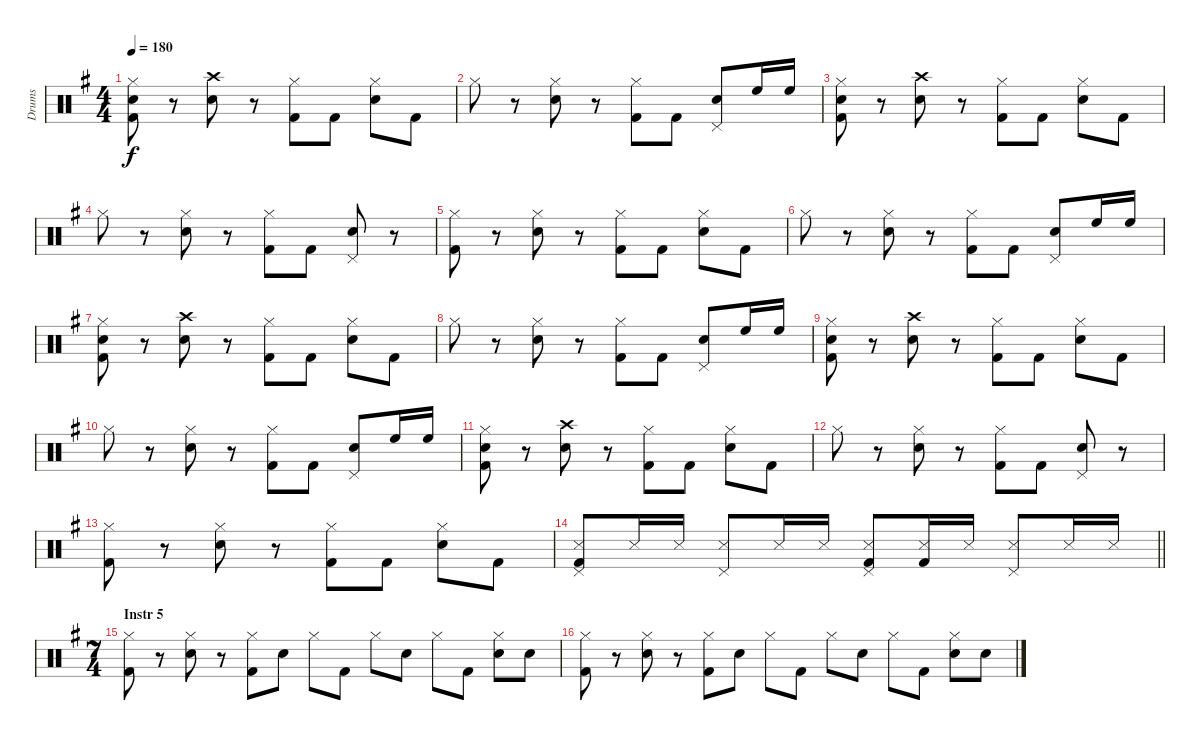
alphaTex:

\track ("Drums" "Drums") {instrument percussion bank 255}
\staff {score}
\articulation defaults
\ts (4 4)
\tempo 180
\clef neutral
\ks g
("Hi-Hat (closed)" "Snare (hit) 2" "Kick (hit) 2").8{dy f} r.8 ("Crash high (hit)" "Snare (hit) 2").8 r.8 ("Hi-Hat (closed)" "Kick (hit) 2").8 "Kick (hit) 2".8 ("Hi-Hat (closed)" "Snare (hit) 2").8 "Kick (hit) 2".8 |
"Hi-Hat (closed)".8 r.8 ("Hi-Hat (closed)" "Snare (hit) 2").8 r.8 ("Hi-Hat (closed)" "Kick (hit) 2").8 "Kick (hit) 2".8 ("Pedal Hi-Hat (hit)" "Snare (hit) 2").8 "High Floor Tom (hit)".16 "High Floor Tom (hit)".16 |
("Hi-Hat (closed)" "Snare (hit) 2" "Kick (hit) 2").8 r.8 ("Crash high (hit)" "Snare (hit) 2").8 r.8 ("Hi-Hat (closed)" "Kick (hit) 2").8 "Kick (hit) 2".8 ("Hi-Hat (closed)" "Snare (hit) 2").8 "Kick (hit) 2".8 |
"Hi-Hat (closed)".8 r.8 ("Hi-Hat (closed)" "Snare (hit) 2").8 r.8 ("Hi-Hat (closed)" "Kick (hit) 2").8 "Kick (hit) 2".8 ("Pedal Hi-Hat (hit)" "Snare (hit) 2").8 r.8 |
("Hi-Hat (closed)" "Kick (hit) 2").8 r.8 ("Hi-Hat (closed)" "Snare (hit) 2").8 r.8 ("Hi-Hat (closed)" "Kick (hit) 2").8 "Kick (hit) 2".8 ("Hi-Hat (closed)" "Snare (hit) 2").8 "Kick (hit) 2".8 |
"Hi-Hat (closed)".8 r.8 ("Hi-Hat (closed)" "Snare (hit) 2").8 r.8 ("Hi-Hat (closed)" "Kick (hit) 2").8 "Kick (hit) 2".8 ("Pedal Hi-Hat (hit)" "Snare (hit) 2").8 "High Floor Tom (hit)".16 "High Floor Tom (hit)".16 |
("Hi-Hat (closed)" "Snare (hit) 2" "Kick (hit) 2").8 r.8 ("Crash high (hit)" "Snare (hit) 2").8 r.8 ("Hi-Hat (closed)" "Kick (hit) 2").8 "Kick (hit) 2".8 ("Hi-Hat (closed)" "Snare (hit) 2").8 "Kick (hit) 2".8 |
"Hi-Hat (closed)".8 r.8 ("Hi-Hat (closed)" "Snare (hit) 2").8 r.8 ("Hi-Hat (closed)" "Kick (hit) 2").8 "Kick (hit) 2".8 ("Pedal Hi-Hat (hit)" "Snare (hit) 2").8 "High Floor Tom (hit)".16 "High Floor Tom (hit)".16 |
("Hi-Hat (closed)" "Snare (hit) 2" "Kick (hit) 2").8 r.8 ("Crash high (hit)" "Snare (hit) 2").8 r.8 ("Hi-Hat (closed)" "Kick (hit) 2").8 "Kick (hit) 2".8 ("Hi-Hat (closed)" "Snare (hit) 2").8 "Kick (hit) 2".8 |
"Hi-Hat (closed)".8 r.8 ("Hi-Hat (closed)" "Snare (hit) 2").8 r.8 ("Hi-Hat (closed)" "Kick (hit) 2").8 "Kick (hit) 2".8 ("Pedal Hi-Hat (hit)" "Snare (hit) 2").8 "High Floor Tom (hit)".16 "High Floor Tom (hit)".16 |
("Hi-Hat (closed)" "Snare (hit) 2" "Kick (hit) 2").8 r.8 ("Crash high (hit)" "Snare (hit) 2").8 r.8 ("Hi-Hat (closed)" "Kick (hit) 2").8 "Kick (hit) 2".8 ("Hi-Hat (closed)" "Snare (hit) 2").8 "Kick (hit) 2".8 |
"Hi-Hat (closed)".8 r.8 ("Hi-Hat (closed)" "Snare (hit) 2").8 r.8 ("Hi-Hat (closed)" "Kick (hit) 2").8 "Kick (hit) 2".8 ("Pedal Hi-Hat (hit)" "Snare (hit) 2").8 r.8 |
("Hi-Hat (closed)" "Kick (hit) 2").8 r.8 ("Hi-Hat (closed)" "Snare (hit) 2").8 r.8 ("Hi-Hat (closed)" "Kick (hit) 2").8 "Kick (hit) 2".8 ("Hi-Hat (closed)" "Snare (hit) 2").8 "Kick (hit) 2".8 |
\barLineRight lightlight
("Pedal Hi-Hat (hit)" "Snare (side stick) 3" "Kick (hit) 2").8 "Snare (side stick) 3".16 "Snare (side stick) 3".16 ("Pedal Hi-Hat (hit)" "Snare (side stick) 3").8 "Snare (side stick) 3".16 "Snare (side stick) 3".16 ("Pedal Hi-Hat (hit)" "Snare (side stick) 3" "Kick (hit) 2").8 ("Snare (side stick) 3" "Kick (hit) 2").16 "Snare (side stick) 3".16 ("Pedal Hi-Hat (hit)" "Snare (side stick) 3").8 "Snare (side stick) 3".16 "Snare (side stick) 3".16 |
\ts (7 4)
\section ("" "Instr 5")
("Hi-Hat (closed)" "Kick (hit) 2").8 r.8 ("Hi-Hat (closed)" "Snare (hit) 2").8 r.8 ("Hi-Hat (closed)" "Kick (hit) 2").8 "Snare (hit) 2".8 "Hi-Hat (closed)".8 "Kick (hit) 2".8 "Hi-Hat (closed)".8 "Snare (hit) 2".8 "Hi-Hat (closed)".8 "Kick (hit) 2".8 ("Hi-Hat (closed)" "Snare (hit) 2").8 "Snare (hit) 2".8 |
("Hi-Hat (closed)" "Kick (hit) 2").8 r.8 ("Hi-Hat (closed)" "Snare (hit) 2").8 r.8 ("Hi-Hat (closed)" "Kick (hit) 2").8 "Snare (hit) 2".8 "Hi-Hat (closed)".8 "Kick (hit) 2".8 "Hi-Hat (closed)".8 "Snare (hit) 2".8 "Hi-Hat (closed)".8 "Kick (hit) 2".8 ("Hi-Hat (closed)" "Snare (hit) 2").8 "Snare (hit) 2".8
